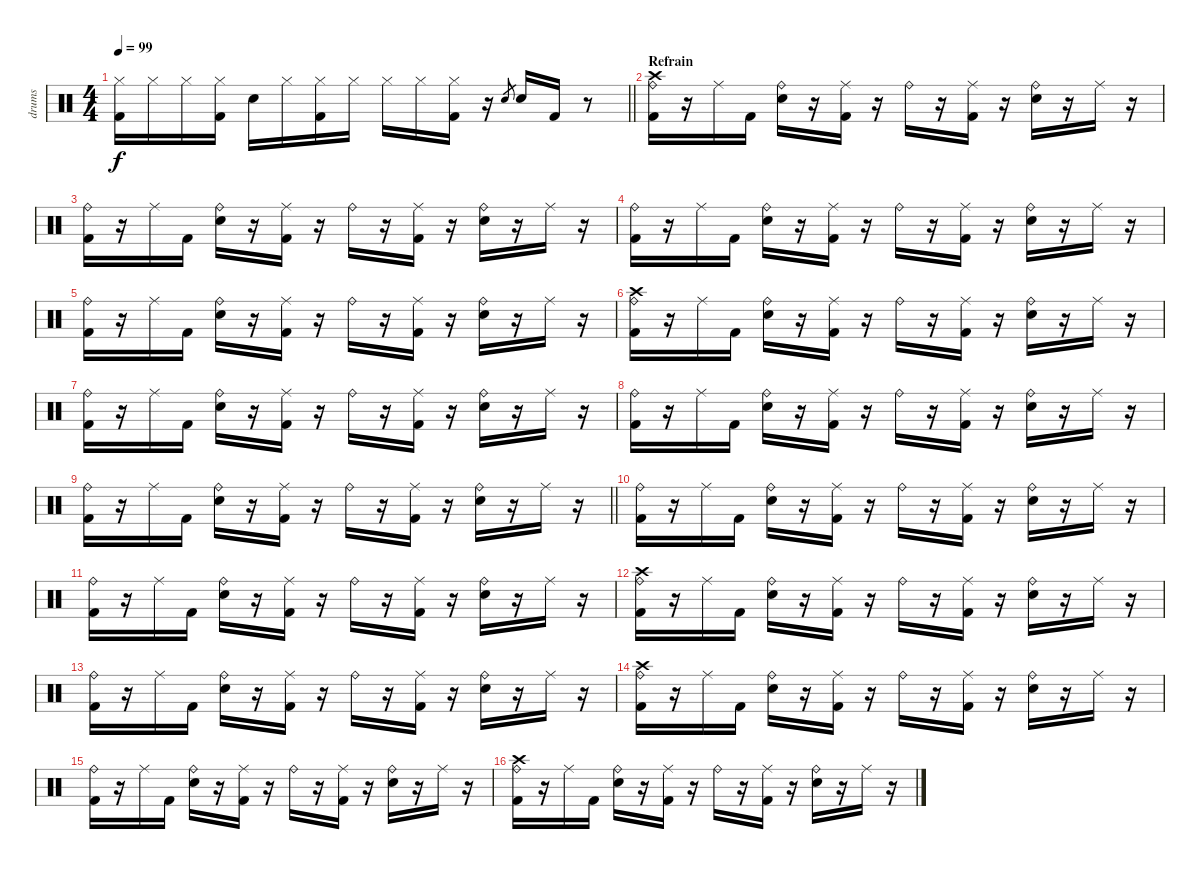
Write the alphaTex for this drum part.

\track ("drums" "drums") {instrument percussion}
\staff {score}
\articulation defaults
\ts (4 4)
\tempo 99
\clef neutral
\barLineRight lightlight
\ks c
("Hi-Hat (closed)" "Kick (hit) 2").16{dy f} "Hi-Hat (closed)".16 "Hi-Hat (closed)".16 ("Hi-Hat (closed)" "Kick (hit) 2").16 "Snare (hit) 2".16 "Hi-Hat (closed)".16 ("Hi-Hat (closed)" "Kick (hit) 2").16 "Hi-Hat (closed)".16 "Hi-Hat (closed)"{nh}.16 "Hi-Hat (closed)".16 ("Hi-Hat (closed)" "Kick (hit) 2").16 r.16 "Snare (hit) 2".8{gr} "Snare (hit) 2".16 "Kick (hit) 2".16 r.8 |
\section ("" "Refrain")
("Crash high (hit)" "Ride (bell)" "Kick (hit) 2").16 r.16 "Ride (middle)".16 "Kick (hit) 2".16 ("Ride (bell)" "Snare (hit) 2").16 r.16 ("Ride (middle)" "Kick (hit) 2").16 r.16 "Ride (bell)"{nh}.16 r.16 ("Ride (middle)" "Kick (hit) 2").16 r.16 ("Ride (bell)" "Snare (hit) 2").16 r.16 "Ride (middle)".16 r.16 |
("Ride (bell)" "Kick (hit) 2").16 r.16 "Ride (middle)".16 "Kick (hit) 2".16 ("Ride (bell)" "Snare (hit) 2").16 r.16 ("Ride (middle)" "Kick (hit) 2").16 r.16 "Ride (bell)"{nh}.16 r.16 ("Ride (middle)" "Kick (hit) 2").16 r.16 ("Ride (bell)" "Snare (hit) 2").16 r.16 "Ride (middle)".16 r.16 |
("Ride (bell)" "Kick (hit) 2").16 r.16 "Ride (middle)".16 "Kick (hit) 2".16 ("Ride (bell)" "Snare (hit) 2").16 r.16 ("Ride (middle)" "Kick (hit) 2").16 r.16 "Ride (bell)"{nh}.16 r.16 ("Ride (middle)" "Kick (hit) 2").16 r.16 ("Ride (bell)" "Snare (hit) 2").16 r.16 "Ride (middle)".16 r.16 |
("Ride (bell)" "Kick (hit) 2").16 r.16 "Ride (middle)".16 "Kick (hit) 2".16 ("Ride (bell)" "Snare (hit) 2").16 r.16 ("Ride (middle)" "Kick (hit) 2").16 r.16 "Ride (bell)"{nh}.16 r.16 ("Ride (middle)" "Kick (hit) 2").16 r.16 ("Ride (bell)" "Snare (hit) 2").16 r.16 "Ride (middle)".16 r.16 |
("Crash high (hit)" "Ride (bell)" "Kick (hit) 2").16 r.16 "Ride (middle)".16 "Kick (hit) 2".16 ("Ride (bell)" "Snare (hit) 2").16 r.16 ("Ride (middle)" "Kick (hit) 2").16 r.16 "Ride (bell)"{nh}.16 r.16 ("Ride (middle)" "Kick (hit) 2").16 r.16 ("Ride (bell)" "Snare (hit) 2").16 r.16 "Ride (middle)".16 r.16 |
("Ride (bell)" "Kick (hit) 2").16 r.16 "Ride (middle)".16 "Kick (hit) 2".16 ("Ride (bell)" "Snare (hit) 2").16 r.16 ("Ride (middle)" "Kick (hit) 2").16 r.16 "Ride (bell)"{nh}.16 r.16 ("Ride (middle)" "Kick (hit) 2").16 r.16 ("Ride (bell)" "Snare (hit) 2").16 r.16 "Ride (middle)".16 r.16 |
("Ride (bell)" "Kick (hit) 2").16 r.16 "Ride (middle)".16 "Kick (hit) 2".16 ("Ride (bell)" "Snare (hit) 2").16 r.16 ("Ride (middle)" "Kick (hit) 2").16 r.16 "Ride (bell)"{nh}.16 r.16 ("Ride (middle)" "Kick (hit) 2").16 r.16 ("Ride (bell)" "Snare (hit) 2").16 r.16 "Ride (middle)".16 r.16 |
\barLineRight lightlight
("Ride (bell)" "Kick (hit) 2").16 r.16 "Ride (middle)".16 "Kick (hit) 2".16 ("Ride (bell)" "Snare (hit) 2").16 r.16 ("Ride (middle)" "Kick (hit) 2").16 r.16 "Ride (bell)"{nh}.16 r.16 ("Ride (middle)" "Kick (hit) 2").16 r.16 ("Ride (bell)" "Snare (hit) 2").16 r.16 "Ride (middle)".16 r.16 |
\section ("" "")
("Ride (bell)" "Kick (hit) 2").16 r.16 "Ride (middle)".16 "Kick (hit) 2".16 ("Ride (bell)" "Snare (hit) 2").16 r.16 ("Ride (middle)" "Kick (hit) 2").16 r.16 "Ride (bell)"{nh}.16 r.16 ("Ride (middle)" "Kick (hit) 2").16 r.16 ("Ride (bell)" "Snare (hit) 2").16 r.16 "Ride (middle)".16 r.16 |
("Ride (bell)" "Kick (hit) 2").16 r.16 "Ride (middle)".16 "Kick (hit) 2".16 ("Ride (bell)" "Snare (hit) 2").16 r.16 ("Ride (middle)" "Kick (hit) 2").16 r.16 "Ride (bell)"{nh}.16 r.16 ("Ride (middle)" "Kick (hit) 2").16 r.16 ("Ride (bell)" "Snare (hit) 2").16 r.16 "Ride (middle)".16 r.16 |
("Crash high (hit)" "Ride (bell)" "Kick (hit) 2").16 r.16 "Ride (middle)".16 "Kick (hit) 2".16 ("Ride (bell)" "Snare (hit) 2").16 r.16 ("Ride (middle)" "Kick (hit) 2").16 r.16 "Ride (bell)"{nh}.16 r.16 ("Ride (middle)" "Kick (hit) 2").16 r.16 ("Ride (bell)" "Snare (hit) 2").16 r.16 "Ride (middle)".16 r.16 |
("Ride (bell)" "Kick (hit) 2").16 r.16 "Ride (middle)".16 "Kick (hit) 2".16 ("Ride (bell)" "Snare (hit) 2").16 r.16 ("Ride (middle)" "Kick (hit) 2").16 r.16 "Ride (bell)"{nh}.16 r.16 ("Ride (middle)" "Kick (hit) 2").16 r.16 ("Ride (bell)" "Snare (hit) 2").16 r.16 "Ride (middle)".16 r.16 |
("Crash high (hit)" "Ride (bell)" "Kick (hit) 2").16 r.16 "Ride (middle)".16 "Kick (hit) 2".16 ("Ride (bell)" "Snare (hit) 2").16 r.16 ("Ride (middle)" "Kick (hit) 2").16 r.16 "Ride (bell)"{nh}.16 r.16 ("Ride (middle)" "Kick (hit) 2").16 r.16 ("Ride (bell)" "Snare (hit) 2").16 r.16 "Ride (middle)".16 r.16 |
("Ride (bell)" "Kick (hit) 2").16 r.16 "Ride (middle)".16 "Kick (hit) 2".16 ("Ride (bell)" "Snare (hit) 2").16 r.16 ("Ride (middle)" "Kick (hit) 2").16 r.16 "Ride (bell)"{nh}.16 r.16 ("Ride (middle)" "Kick (hit) 2").16 r.16 ("Ride (bell)" "Snare (hit) 2").16 r.16 "Ride (middle)".16 r.16 |
("Crash high (hit)" "Ride (bell)" "Kick (hit) 2").16 r.16 "Ride (middle)".16 "Kick (hit) 2".16 ("Ride (bell)" "Snare (hit) 2").16 r.16 ("Ride (middle)" "Kick (hit) 2").16 r.16 "Ride (bell)"{nh}.16 r.16 ("Ride (middle)" "Kick (hit) 2").16 r.16 ("Ride (bell)" "Snare (hit) 2").16 r.16 "Ride (middle)".16 r.16
